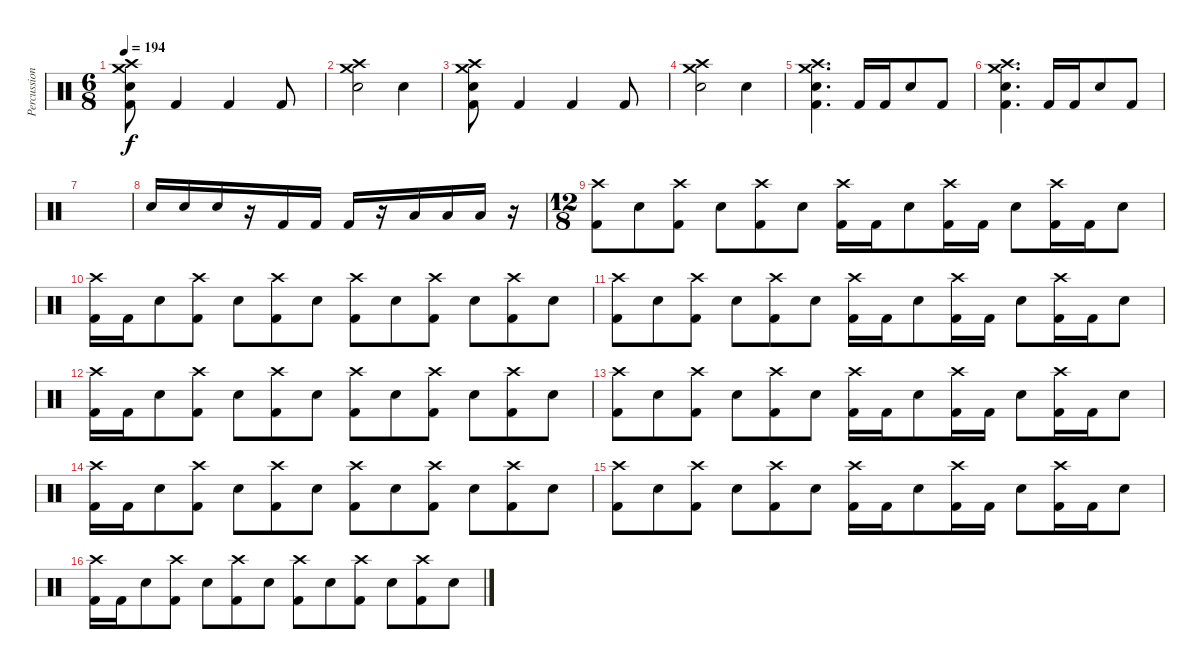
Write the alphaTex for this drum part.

\track ("Percussion" "Percussion") {instrument percussion}
\staff {score}
\articulation defaults
\ts (6 8)
\tempo 194
\clef neutral
\ks c
("Kick (hit) 2" "Snare (hit) 2" "Crash high (hit)" "Crash medium (hit)").8{dy f} "Kick (hit) 2".4 "Kick (hit) 2".4 "Kick (hit) 2".8 |
("Snare (hit) 2" "Crash medium (hit)" "Crash high (hit)").2 "Snare (hit) 2".4 |
("Kick (hit) 2" "Snare (hit) 2" "Crash high (hit)" "Crash medium (hit)").8 "Kick (hit) 2".4 "Kick (hit) 2".4 "Kick (hit) 2".8 |
("Snare (hit) 2" "Crash medium (hit)" "Crash high (hit)").2 "Snare (hit) 2".4 |
("Kick (hit) 2" "Snare (hit) 2" "Crash high (hit)" "Crash medium (hit)").4{d} "Kick (hit) 2".16 "Kick (hit) 2".16 "Snare (hit) 2".8 "Kick (hit) 2".8 |
("Kick (hit) 2" "Snare (hit) 2" "Crash high (hit)" "Crash medium (hit)").4{d} "Kick (hit) 2".16 "Kick (hit) 2".16 "Snare (hit) 2".8 "Kick (hit) 2".8 |
|
"Snare (hit) 2".16 "Snare (hit) 2".16 "Snare (hit) 2".16 r.16 "Kick (hit) 2".16 "Kick (hit) 2".16 "Kick (hit) 2".16 r.16 "Low Tom (hit)".16 "Low Tom (hit)".16 "Low Tom (hit)".16 r.16 |
\ts (12 8)
("Kick (hit) 2" "Crash high (hit)").8 "Snare (hit) 2".8 ("Kick (hit) 2" "Crash high (hit)").8 "Snare (hit) 2".8 ("Kick (hit) 2" "Crash high (hit)").8 "Snare (hit) 2".8 ("Kick (hit) 2" "Crash high (hit)").16 "Kick (hit) 2".16 "Snare (hit) 2".8 ("Kick (hit) 2" "Crash high (hit)").16 "Kick (hit) 2".16 "Snare (hit) 2".8 ("Kick (hit) 2" "Crash high (hit)").16 "Kick (hit) 2".16 "Snare (hit) 2".8 |
("Kick (hit) 2" "Crash high (hit)").16 "Kick (hit) 2".16 "Snare (hit) 2".8 ("Kick (hit) 2" "Crash high (hit)").8 "Snare (hit) 2".8 ("Kick (hit) 2" "Crash high (hit)").8 "Snare (hit) 2".8 ("Kick (hit) 2" "Crash high (hit)").8 "Snare (hit) 2".8 ("Kick (hit) 2" "Crash high (hit)").8 "Snare (hit) 2".8 ("Kick (hit) 2" "Crash high (hit)").8 "Snare (hit) 2".8 |
("Kick (hit) 2" "Crash high (hit)").8 "Snare (hit) 2".8 ("Kick (hit) 2" "Crash high (hit)").8 "Snare (hit) 2".8 ("Kick (hit) 2" "Crash high (hit)").8 "Snare (hit) 2".8 ("Kick (hit) 2" "Crash high (hit)").16 "Kick (hit) 2".16 "Snare (hit) 2".8 ("Kick (hit) 2" "Crash high (hit)").16 "Kick (hit) 2".16 "Snare (hit) 2".8 ("Kick (hit) 2" "Crash high (hit)").16 "Kick (hit) 2".16 "Snare (hit) 2".8 |
("Kick (hit) 2" "Crash high (hit)").16 "Kick (hit) 2".16 "Snare (hit) 2".8 ("Kick (hit) 2" "Crash high (hit)").8 "Snare (hit) 2".8 ("Kick (hit) 2" "Crash high (hit)").8 "Snare (hit) 2".8 ("Kick (hit) 2" "Crash high (hit)").8 "Snare (hit) 2".8 ("Kick (hit) 2" "Crash high (hit)").8 "Snare (hit) 2".8 ("Kick (hit) 2" "Crash high (hit)").8 "Snare (hit) 2".8 |
("Kick (hit) 2" "Crash high (hit)").8 "Snare (hit) 2".8 ("Kick (hit) 2" "Crash high (hit)").8 "Snare (hit) 2".8 ("Kick (hit) 2" "Crash high (hit)").8 "Snare (hit) 2".8 ("Kick (hit) 2" "Crash high (hit)").16 "Kick (hit) 2".16 "Snare (hit) 2".8 ("Kick (hit) 2" "Crash high (hit)").16 "Kick (hit) 2".16 "Snare (hit) 2".8 ("Kick (hit) 2" "Crash high (hit)").16 "Kick (hit) 2".16 "Snare (hit) 2".8 |
("Kick (hit) 2" "Crash high (hit)").16 "Kick (hit) 2".16 "Snare (hit) 2".8 ("Kick (hit) 2" "Crash high (hit)").8 "Snare (hit) 2".8 ("Kick (hit) 2" "Crash high (hit)").8 "Snare (hit) 2".8 ("Kick (hit) 2" "Crash high (hit)").8 "Snare (hit) 2".8 ("Kick (hit) 2" "Crash high (hit)").8 "Snare (hit) 2".8 ("Kick (hit) 2" "Crash high (hit)").8 "Snare (hit) 2".8 |
("Kick (hit) 2" "Crash high (hit)").8 "Snare (hit) 2".8 ("Kick (hit) 2" "Crash high (hit)").8 "Snare (hit) 2".8 ("Kick (hit) 2" "Crash high (hit)").8 "Snare (hit) 2".8 ("Kick (hit) 2" "Crash high (hit)").16 "Kick (hit) 2".16 "Snare (hit) 2".8 ("Kick (hit) 2" "Crash high (hit)").16 "Kick (hit) 2".16 "Snare (hit) 2".8 ("Kick (hit) 2" "Crash high (hit)").16 "Kick (hit) 2".16 "Snare (hit) 2".8 |
("Kick (hit) 2" "Crash high (hit)").16 "Kick (hit) 2".16 "Snare (hit) 2".8 ("Kick (hit) 2" "Crash high (hit)").8 "Snare (hit) 2".8 ("Kick (hit) 2" "Crash high (hit)").8 "Snare (hit) 2".8 ("Kick (hit) 2" "Crash high (hit)").8 "Snare (hit) 2".8 ("Kick (hit) 2" "Crash high (hit)").8 "Snare (hit) 2".8 ("Kick (hit) 2" "Crash high (hit)").8 "Snare (hit) 2".8
